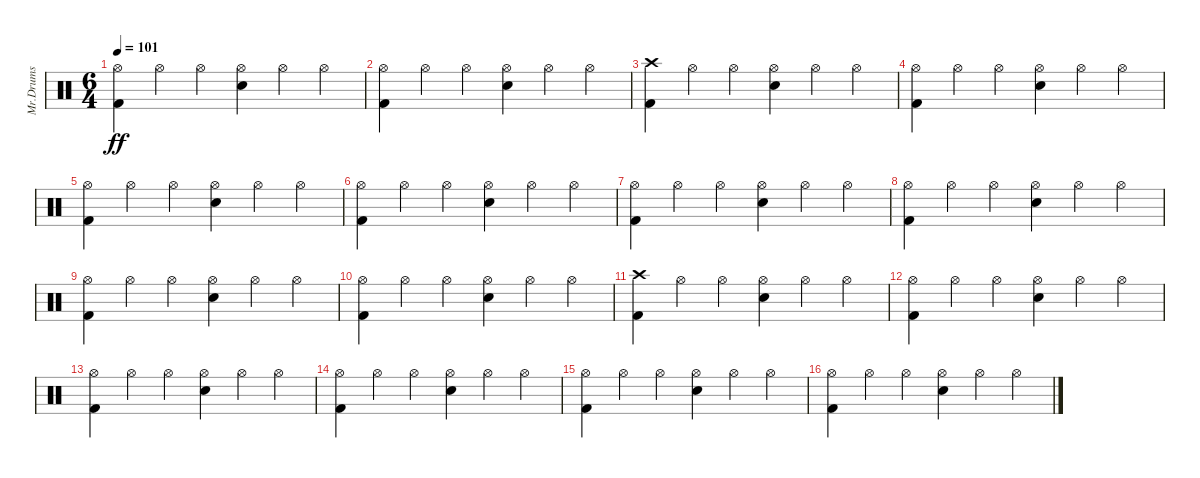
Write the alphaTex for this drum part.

\track ("Mr.Drums" "Mr.Drums") {instrument percussion}
\staff {score}
\articulation defaults
\ts (6 4)
\tempo 101
\clef neutral
\ks c
("Hi-Hat (open)" "Kick (hit) 2").4{dy ff} "Hi-Hat (open)".4 "Hi-Hat (open)".4 ("Hi-Hat (open)" "Electric Snare (hit)").4 "Hi-Hat (open)".4 "Hi-Hat (open)".4 |
("Hi-Hat (open)" "Kick (hit) 2").4 "Hi-Hat (open)".4 "Hi-Hat (open)".4 ("Hi-Hat (open)" "Electric Snare (hit)").4 "Hi-Hat (open)".4 "Hi-Hat (open)".4 |
("Crash high (hit)" "Kick (hit) 2").4 "Hi-Hat (open)".4 "Hi-Hat (open)".4 ("Hi-Hat (open)" "Electric Snare (hit)").4 "Hi-Hat (open)".4 "Hi-Hat (open)".4 |
("Hi-Hat (open)" "Kick (hit) 2").4 "Hi-Hat (open)".4 "Hi-Hat (open)".4 ("Hi-Hat (open)" "Electric Snare (hit)").4 "Hi-Hat (open)".4 "Hi-Hat (open)".4 |
("Hi-Hat (open)" "Kick (hit) 2").4 "Hi-Hat (open)".4 "Hi-Hat (open)".4 ("Hi-Hat (open)" "Electric Snare (hit)").4 "Hi-Hat (open)".4 "Hi-Hat (open)".4 |
("Hi-Hat (open)" "Kick (hit) 2").4 "Hi-Hat (open)".4 "Hi-Hat (open)".4 ("Hi-Hat (open)" "Electric Snare (hit)").4 "Hi-Hat (open)".4 "Hi-Hat (open)".4 |
("Hi-Hat (open)" "Kick (hit) 2").4 "Hi-Hat (open)".4 "Hi-Hat (open)".4 ("Hi-Hat (open)" "Electric Snare (hit)").4 "Hi-Hat (open)".4 "Hi-Hat (open)".4 |
("Hi-Hat (open)" "Kick (hit) 2").4 "Hi-Hat (open)".4 "Hi-Hat (open)".4 ("Hi-Hat (open)" "Electric Snare (hit)").4 "Hi-Hat (open)".4 "Hi-Hat (open)".4 |
("Hi-Hat (open)" "Kick (hit) 2").4 "Hi-Hat (open)".4 "Hi-Hat (open)".4 ("Hi-Hat (open)" "Electric Snare (hit)").4 "Hi-Hat (open)".4 "Hi-Hat (open)".4 |
("Hi-Hat (open)" "Kick (hit) 2").4 "Hi-Hat (open)".4 "Hi-Hat (open)".4 ("Hi-Hat (open)" "Electric Snare (hit)").4 "Hi-Hat (open)".4 "Hi-Hat (open)".4 |
("Crash high (hit)" "Kick (hit) 2").4 "Hi-Hat (open)".4 "Hi-Hat (open)".4 ("Hi-Hat (open)" "Electric Snare (hit)").4 "Hi-Hat (open)".4 "Hi-Hat (open)".4 |
("Hi-Hat (open)" "Kick (hit) 2").4 "Hi-Hat (open)".4 "Hi-Hat (open)".4 ("Hi-Hat (open)" "Electric Snare (hit)").4 "Hi-Hat (open)".4 "Hi-Hat (open)".4 |
("Hi-Hat (open)" "Kick (hit) 2").4 "Hi-Hat (open)".4 "Hi-Hat (open)".4 ("Hi-Hat (open)" "Electric Snare (hit)").4 "Hi-Hat (open)".4 "Hi-Hat (open)".4 |
("Hi-Hat (open)" "Kick (hit) 2").4 "Hi-Hat (open)".4 "Hi-Hat (open)".4 ("Hi-Hat (open)" "Electric Snare (hit)").4 "Hi-Hat (open)".4 "Hi-Hat (open)".4 |
("Hi-Hat (open)" "Kick (hit) 2").4 "Hi-Hat (open)".4 "Hi-Hat (open)".4 ("Hi-Hat (open)" "Electric Snare (hit)").4 "Hi-Hat (open)".4 "Hi-Hat (open)".4 |
("Hi-Hat (open)" "Kick (hit) 2").4 "Hi-Hat (open)".4 "Hi-Hat (open)".4 ("Hi-Hat (open)" "Electric Snare (hit)").4 "Hi-Hat (open)".4 "Hi-Hat (open)".4
